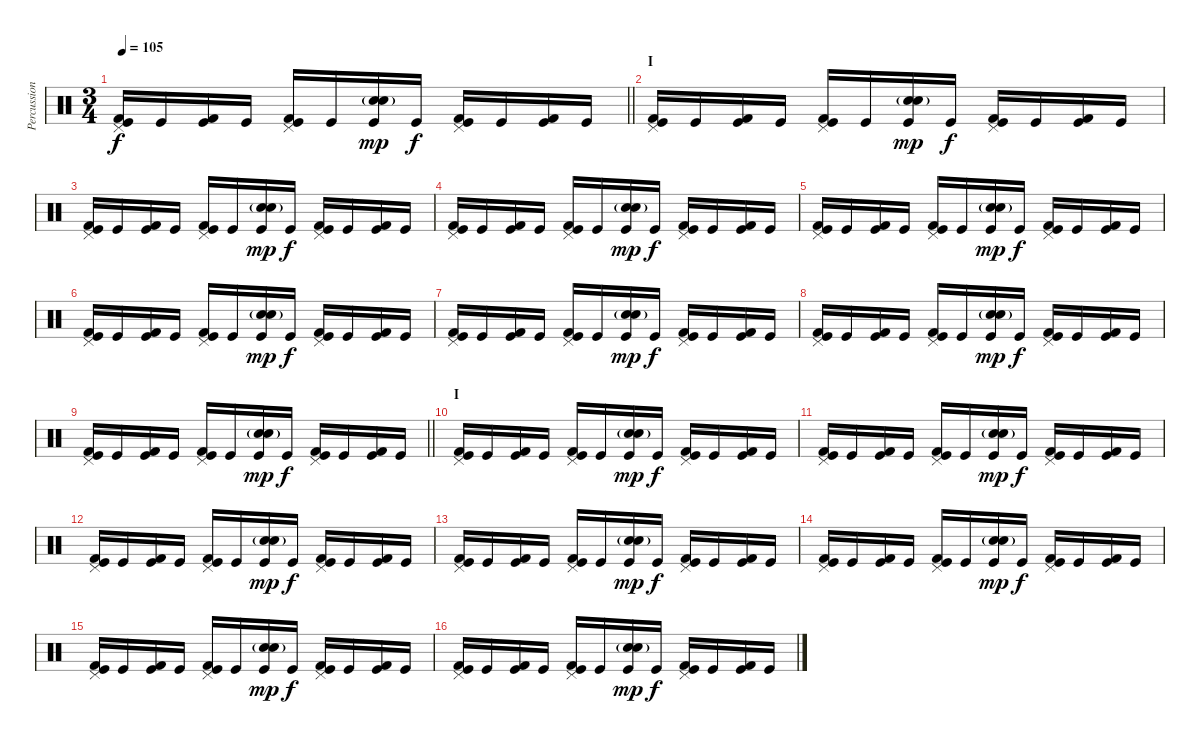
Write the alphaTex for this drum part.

\track ("Percussion" "Percussion") {instrument percussion}
\staff {score}
\articulation defaults
\ts (3 4)
\tempo 105
\clef neutral
\barLineRight lightlight
\ks c
("Kick (hit) 2" "Kick (hit)" "Pedal Hi-Hat (hit)").16{dy f} "Kick (hit)".16 ("Kick (hit) 2" "Kick (hit)").16 "Kick (hit)".16 ("Kick (hit) 2" "Kick (hit)" "Pedal Hi-Hat (hit)").16 "Kick (hit)".16 ("Electric Snare (hit)" "Snare (hit) 2"{g} "Kick (hit)").16{dy mp} "Kick (hit)".16{dy f} ("Kick (hit) 2" "Kick (hit)" "Pedal Hi-Hat (hit)").16 "Kick (hit)".16 ("Kick (hit) 2" "Kick (hit)").16 "Kick (hit)".16 |
\section ("" "I")
("Kick (hit) 2" "Kick (hit)" "Pedal Hi-Hat (hit)").16 "Kick (hit)".16 ("Kick (hit) 2" "Kick (hit)").16 "Kick (hit)".16 ("Kick (hit) 2" "Kick (hit)" "Pedal Hi-Hat (hit)").16 "Kick (hit)".16 ("Electric Snare (hit)" "Snare (hit) 2"{g} "Kick (hit)").16{dy mp} "Kick (hit)".16{dy f} ("Kick (hit) 2" "Kick (hit)" "Pedal Hi-Hat (hit)").16 "Kick (hit)".16 ("Kick (hit) 2" "Kick (hit)").16 "Kick (hit)".16 |
("Kick (hit) 2" "Kick (hit)" "Pedal Hi-Hat (hit)").16 "Kick (hit)".16 ("Kick (hit) 2" "Kick (hit)").16 "Kick (hit)".16 ("Kick (hit) 2" "Kick (hit)" "Pedal Hi-Hat (hit)").16 "Kick (hit)".16 ("Electric Snare (hit)" "Snare (hit) 2"{g} "Kick (hit)").16{dy mp} "Kick (hit)".16{dy f} ("Kick (hit) 2" "Kick (hit)" "Pedal Hi-Hat (hit)").16 "Kick (hit)".16 ("Kick (hit) 2" "Kick (hit)").16 "Kick (hit)".16 |
("Kick (hit) 2" "Kick (hit)" "Pedal Hi-Hat (hit)").16 "Kick (hit)".16 ("Kick (hit) 2" "Kick (hit)").16 "Kick (hit)".16 ("Kick (hit) 2" "Kick (hit)" "Pedal Hi-Hat (hit)").16 "Kick (hit)".16 ("Electric Snare (hit)" "Snare (hit) 2"{g} "Kick (hit)").16{dy mp} "Kick (hit)".16{dy f} ("Kick (hit) 2" "Kick (hit)" "Pedal Hi-Hat (hit)").16 "Kick (hit)".16 ("Kick (hit) 2" "Kick (hit)").16 "Kick (hit)".16 |
("Kick (hit) 2" "Kick (hit)" "Pedal Hi-Hat (hit)").16 "Kick (hit)".16 ("Kick (hit) 2" "Kick (hit)").16 "Kick (hit)".16 ("Kick (hit) 2" "Kick (hit)" "Pedal Hi-Hat (hit)").16 "Kick (hit)".16 ("Electric Snare (hit)" "Snare (hit) 2"{g} "Kick (hit)").16{dy mp} "Kick (hit)".16{dy f} ("Kick (hit) 2" "Kick (hit)" "Pedal Hi-Hat (hit)").16 "Kick (hit)".16 ("Kick (hit) 2" "Kick (hit)").16 "Kick (hit)".16 |
("Kick (hit) 2" "Kick (hit)" "Pedal Hi-Hat (hit)").16 "Kick (hit)".16 ("Kick (hit) 2" "Kick (hit)").16 "Kick (hit)".16 ("Kick (hit) 2" "Kick (hit)" "Pedal Hi-Hat (hit)").16 "Kick (hit)".16 ("Electric Snare (hit)" "Snare (hit) 2"{g} "Kick (hit)").16{dy mp} "Kick (hit)".16{dy f} ("Kick (hit) 2" "Kick (hit)" "Pedal Hi-Hat (hit)").16 "Kick (hit)".16 ("Kick (hit) 2" "Kick (hit)").16 "Kick (hit)".16 |
("Kick (hit) 2" "Kick (hit)" "Pedal Hi-Hat (hit)").16 "Kick (hit)".16 ("Kick (hit) 2" "Kick (hit)").16 "Kick (hit)".16 ("Kick (hit) 2" "Kick (hit)" "Pedal Hi-Hat (hit)").16 "Kick (hit)".16 ("Electric Snare (hit)" "Snare (hit) 2"{g} "Kick (hit)").16{dy mp} "Kick (hit)".16{dy f} ("Kick (hit) 2" "Kick (hit)" "Pedal Hi-Hat (hit)").16 "Kick (hit)".16 ("Kick (hit) 2" "Kick (hit)").16 "Kick (hit)".16 |
("Kick (hit) 2" "Kick (hit)" "Pedal Hi-Hat (hit)").16 "Kick (hit)".16 ("Kick (hit) 2" "Kick (hit)").16 "Kick (hit)".16 ("Kick (hit) 2" "Kick (hit)" "Pedal Hi-Hat (hit)").16 "Kick (hit)".16 ("Electric Snare (hit)" "Snare (hit) 2"{g} "Kick (hit)").16{dy mp} "Kick (hit)".16{dy f} ("Kick (hit) 2" "Kick (hit)" "Pedal Hi-Hat (hit)").16 "Kick (hit)".16 ("Kick (hit) 2" "Kick (hit)").16 "Kick (hit)".16 |
\barLineRight lightlight
("Kick (hit) 2" "Kick (hit)" "Pedal Hi-Hat (hit)").16 "Kick (hit)".16 ("Kick (hit) 2" "Kick (hit)").16 "Kick (hit)".16 ("Kick (hit) 2" "Kick (hit)" "Pedal Hi-Hat (hit)").16 "Kick (hit)".16 ("Electric Snare (hit)" "Snare (hit) 2"{g} "Kick (hit)").16{dy mp} "Kick (hit)".16{dy f} ("Kick (hit) 2" "Kick (hit)" "Pedal Hi-Hat (hit)").16 "Kick (hit)".16 ("Kick (hit) 2" "Kick (hit)").16 "Kick (hit)".16 |
\section ("" "I")
("Kick (hit) 2" "Kick (hit)" "Pedal Hi-Hat (hit)").16 "Kick (hit)".16 ("Kick (hit) 2" "Kick (hit)").16 "Kick (hit)".16 ("Kick (hit) 2" "Kick (hit)" "Pedal Hi-Hat (hit)").16 "Kick (hit)".16 ("Electric Snare (hit)" "Snare (hit) 2"{g} "Kick (hit)").16{dy mp} "Kick (hit)".16{dy f} ("Kick (hit) 2" "Kick (hit)" "Pedal Hi-Hat (hit)").16 "Kick (hit)".16 ("Kick (hit) 2" "Kick (hit)").16 "Kick (hit)".16 |
("Kick (hit) 2" "Kick (hit)" "Pedal Hi-Hat (hit)").16 "Kick (hit)".16 ("Kick (hit) 2" "Kick (hit)").16 "Kick (hit)".16 ("Kick (hit) 2" "Kick (hit)" "Pedal Hi-Hat (hit)").16 "Kick (hit)".16 ("Electric Snare (hit)" "Snare (hit) 2"{g} "Kick (hit)").16{dy mp} "Kick (hit)".16{dy f} ("Kick (hit) 2" "Kick (hit)" "Pedal Hi-Hat (hit)").16 "Kick (hit)".16 ("Kick (hit) 2" "Kick (hit)").16 "Kick (hit)".16 |
("Kick (hit) 2" "Kick (hit)" "Pedal Hi-Hat (hit)").16 "Kick (hit)".16 ("Kick (hit) 2" "Kick (hit)").16 "Kick (hit)".16 ("Kick (hit) 2" "Kick (hit)" "Pedal Hi-Hat (hit)").16 "Kick (hit)".16 ("Electric Snare (hit)" "Snare (hit) 2"{g} "Kick (hit)").16{dy mp} "Kick (hit)".16{dy f} ("Kick (hit) 2" "Kick (hit)" "Pedal Hi-Hat (hit)").16 "Kick (hit)".16 ("Kick (hit) 2" "Kick (hit)").16 "Kick (hit)".16 |
("Kick (hit) 2" "Kick (hit)" "Pedal Hi-Hat (hit)").16 "Kick (hit)".16 ("Kick (hit) 2" "Kick (hit)").16 "Kick (hit)".16 ("Kick (hit) 2" "Kick (hit)" "Pedal Hi-Hat (hit)").16 "Kick (hit)".16 ("Electric Snare (hit)" "Snare (hit) 2"{g} "Kick (hit)").16{dy mp} "Kick (hit)".16{dy f} ("Kick (hit) 2" "Kick (hit)" "Pedal Hi-Hat (hit)").16 "Kick (hit)".16 ("Kick (hit) 2" "Kick (hit)").16 "Kick (hit)".16 |
("Kick (hit) 2" "Kick (hit)" "Pedal Hi-Hat (hit)").16 "Kick (hit)".16 ("Kick (hit) 2" "Kick (hit)").16 "Kick (hit)".16 ("Kick (hit) 2" "Kick (hit)" "Pedal Hi-Hat (hit)").16 "Kick (hit)".16 ("Electric Snare (hit)" "Snare (hit) 2"{g} "Kick (hit)").16{dy mp} "Kick (hit)".16{dy f} ("Kick (hit) 2" "Kick (hit)" "Pedal Hi-Hat (hit)").16 "Kick (hit)".16 ("Kick (hit) 2" "Kick (hit)").16 "Kick (hit)".16 |
("Kick (hit) 2" "Kick (hit)" "Pedal Hi-Hat (hit)").16 "Kick (hit)".16 ("Kick (hit) 2" "Kick (hit)").16 "Kick (hit)".16 ("Kick (hit) 2" "Kick (hit)" "Pedal Hi-Hat (hit)").16 "Kick (hit)".16 ("Electric Snare (hit)" "Snare (hit) 2"{g} "Kick (hit)").16{dy mp} "Kick (hit)".16{dy f} ("Kick (hit) 2" "Kick (hit)" "Pedal Hi-Hat (hit)").16 "Kick (hit)".16 ("Kick (hit) 2" "Kick (hit)").16 "Kick (hit)".16 |
("Kick (hit) 2" "Kick (hit)" "Pedal Hi-Hat (hit)").16 "Kick (hit)".16 ("Kick (hit) 2" "Kick (hit)").16 "Kick (hit)".16 ("Kick (hit) 2" "Kick (hit)" "Pedal Hi-Hat (hit)").16 "Kick (hit)".16 ("Electric Snare (hit)" "Snare (hit) 2"{g} "Kick (hit)").16{dy mp} "Kick (hit)".16{dy f} ("Kick (hit) 2" "Kick (hit)" "Pedal Hi-Hat (hit)").16 "Kick (hit)".16 ("Kick (hit) 2" "Kick (hit)").16 "Kick (hit)".16
